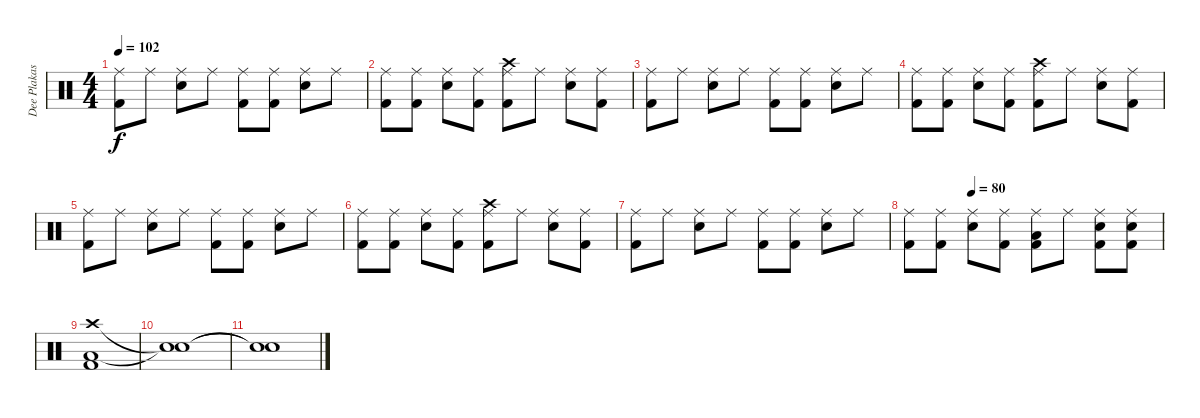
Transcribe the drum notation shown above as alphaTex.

\track ("Dee Plakas" "Dee Plakas") {instrument percussion}
\staff {score}
\articulation defaults
\ts (4 4)
\tempo 102
\clef neutral
\ks c
("Ride (middle)" "Kick (hit) 2").8{dy f} "Ride (middle)".8 ("Ride (middle)" "Snare (hit) 2").8 "Ride (middle)".8 ("Ride (middle)" "Kick (hit) 2").8 ("Ride (middle)" "Kick (hit) 2").8 ("Ride (middle)" "Snare (hit) 2").8 "Ride (middle)".8 |
("Ride (middle)" "Kick (hit) 2").8 ("Ride (middle)" "Kick (hit) 2").8 ("Ride (middle)" "Snare (hit) 2").8 ("Ride (middle)" "Kick (hit) 2").8 ("Ride (middle)" "Crash high (hit)" "Kick (hit) 2").8 "Ride (middle)".8 ("Ride (middle)" "Snare (hit) 2").8 ("Ride (middle)" "Kick (hit) 2").8 |
("Ride (middle)" "Kick (hit) 2").8 "Ride (middle)".8 ("Ride (middle)" "Snare (hit) 2").8 "Ride (middle)".8 ("Ride (middle)" "Kick (hit) 2").8 ("Ride (middle)" "Kick (hit) 2").8 ("Ride (middle)" "Snare (hit) 2").8 "Ride (middle)".8 |
("Ride (middle)" "Kick (hit) 2").8 ("Ride (middle)" "Kick (hit) 2").8 ("Ride (middle)" "Snare (hit) 2").8 ("Ride (middle)" "Kick (hit) 2").8 ("Ride (middle)" "Crash high (hit)" "Kick (hit) 2").8 "Ride (middle)".8 ("Ride (middle)" "Snare (hit) 2").8 ("Ride (middle)" "Kick (hit) 2").8 |
("Ride (middle)" "Kick (hit) 2").8 "Ride (middle)".8 ("Ride (middle)" "Snare (hit) 2").8 "Ride (middle)".8 ("Ride (middle)" "Kick (hit) 2").8 ("Ride (middle)" "Kick (hit) 2").8 ("Ride (middle)" "Snare (hit) 2").8 "Ride (middle)".8 |
("Ride (middle)" "Kick (hit) 2").8 ("Ride (middle)" "Kick (hit) 2").8 ("Ride (middle)" "Snare (hit) 2").8 ("Ride (middle)" "Kick (hit) 2").8 ("Ride (middle)" "Crash high (hit)" "Kick (hit) 2").8 "Ride (middle)".8 ("Ride (middle)" "Snare (hit) 2").8 ("Ride (middle)" "Kick (hit) 2").8 |
("Ride (middle)" "Kick (hit) 2").8 "Ride (middle)".8 ("Ride (middle)" "Snare (hit) 2").8 "Ride (middle)".8 ("Ride (middle)" "Kick (hit) 2").8 ("Ride (middle)" "Kick (hit) 2").8 ("Ride (middle)" "Snare (hit) 2").8 "Ride (middle)".8 |
\tempo (80 0.25)
("Ride (middle)" "Kick (hit) 2").8 ("Ride (middle)" "Kick (hit) 2").8 ("Ride (middle)" "Snare (hit) 2").8 ("Ride (middle)" "Kick (hit) 2").8 ("Ride (middle)" "Low Floor Tom (hit)" "Kick (hit) 2").8 "Ride (middle)".8 ("Ride (middle)" "Snare (hit) 2" "Kick (hit) 2").8 ("Ride (middle)" "Snare (hit) 2" "Kick (hit) 2").8 |
("Crash high (hit)" "Low Floor Tom (hit)" "Kick (hit) 2").1 |
("Snare (hit)"{t} "Snare (hit)"{t}).1 |
("Snare (hit)"{t} "Snare (hit)"{t}).1
